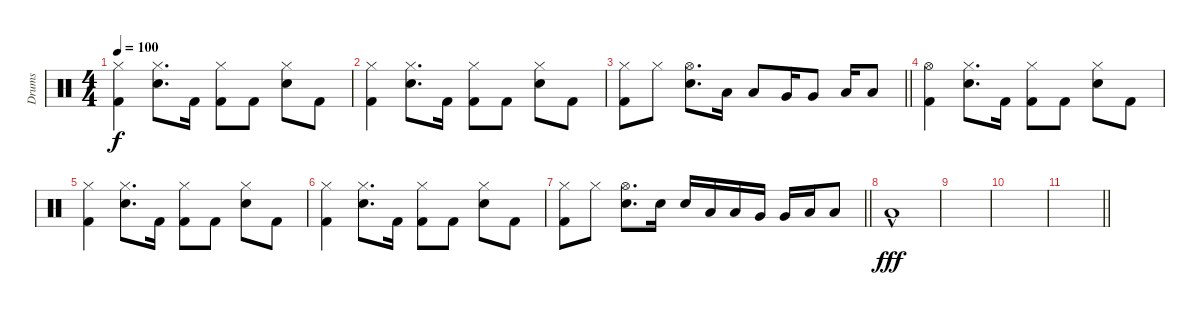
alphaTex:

\track ("Drums" "Drums") {instrument percussion}
\staff {score}
\articulation defaults
\ts (4 4)
\tempo 100
\clef neutral
\ks c
("Kick (hit) 2" "Hi-Hat (closed)").4{dy f} ("Electric Snare (hit)" "Hi-Hat (closed)").8{d} "Kick (hit) 2".16 ("Kick (hit) 2" "Hi-Hat (closed)").8 "Kick (hit) 2".8 ("Electric Snare (hit)" "Hi-Hat (closed)").8 "Kick (hit) 2".8 |
("Kick (hit) 2" "Hi-Hat (closed)").4 ("Electric Snare (hit)" "Hi-Hat (closed)").8{d} "Kick (hit) 2".16 ("Kick (hit) 2" "Hi-Hat (closed)").8 "Kick (hit) 2".8 ("Electric Snare (hit)" "Hi-Hat (closed)").8 "Kick (hit) 2".8 |
\barLineRight lightlight
("Kick (hit) 2" "Hi-Hat (closed)").8 "Hi-Hat (closed)".8 ("Electric Snare (hit)" "Hi-Hat (open)").8{d} "Low Tom (hit)".16 "Low Tom (hit)".8 "Very Low Tom (hit)".16 "Very Low Tom (hit)".8 "Low Floor Tom (hit)".16 "Low Floor Tom (hit)".8 |
("Kick (hit) 2" "Hi-Hat (open)").4 ("Electric Snare (hit)" "Hi-Hat (closed)").8{d} "Kick (hit) 2".16 ("Kick (hit) 2" "Hi-Hat (closed)").8 "Kick (hit) 2".8 ("Electric Snare (hit)" "Hi-Hat (closed)").8 "Kick (hit) 2".8 |
("Kick (hit) 2" "Hi-Hat (closed)").4 ("Electric Snare (hit)" "Hi-Hat (closed)").8{d} "Kick (hit) 2".16 ("Kick (hit) 2" "Hi-Hat (closed)").8 "Kick (hit) 2".8 ("Electric Snare (hit)" "Hi-Hat (closed)").8 "Kick (hit) 2".8 |
("Kick (hit) 2" "Hi-Hat (closed)").4 ("Electric Snare (hit)" "Hi-Hat (closed)").8{d} "Kick (hit) 2".16 ("Kick (hit) 2" "Hi-Hat (closed)").8 "Kick (hit) 2".8 ("Electric Snare (hit)" "Hi-Hat (closed)").8 "Kick (hit) 2".8 |
\barLineRight lightlight
("Kick (hit) 2" "Hi-Hat (closed)").8 "Hi-Hat (closed)".8 ("Electric Snare (hit)" "Hi-Hat (open)").8{d} "Electric Snare (hit)".16 "Electric Snare (hit)".16 "Low Tom (hit)".16 "Low Tom (hit)".16 "Very Low Tom (hit)".16 "Very Low Tom (hit)".16 "Low Floor Tom (hit)".16 "Low Floor Tom (hit)".8 |
"Low Floor Tom (hit)"{hac}.1{dy fff} |
|
|
\barLineRight lightlight
